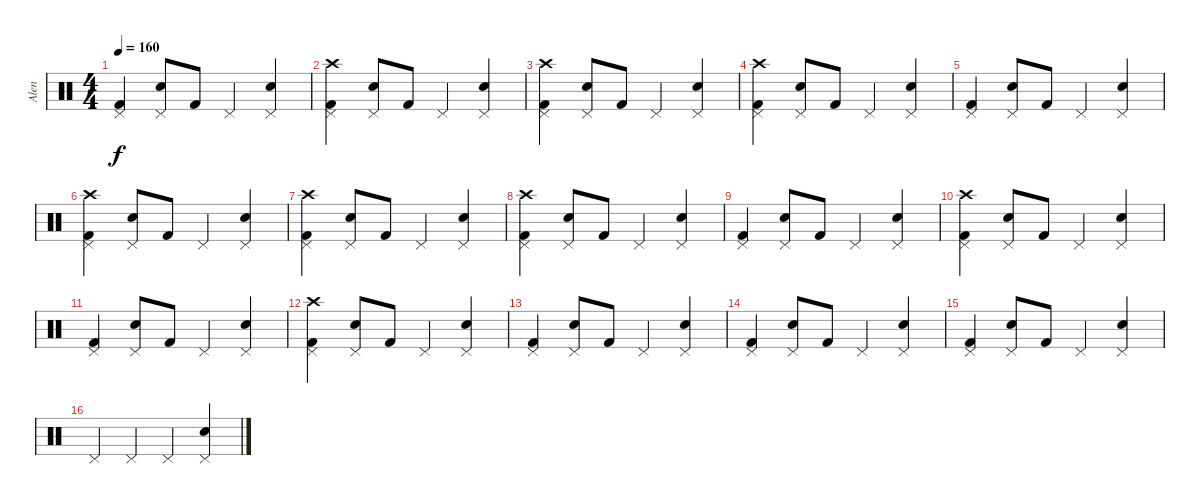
\track ("Alen" "Alen") {instrument percussion}
\staff {score}
\articulation defaults
\ts (4 4)
\tempo 160
\clef neutral
\ks c
("Pedal Hi-Hat (hit)" "Kick (hit) 2").4{dy f} ("Pedal Hi-Hat (hit)" "Snare (hit) 2").8 "Kick (hit) 2".8 "Pedal Hi-Hat (hit)".4 ("Pedal Hi-Hat (hit)" "Snare (hit) 2").4 |
("Crash high (hit)" "Pedal Hi-Hat (hit)" "Kick (hit) 2").4 ("Pedal Hi-Hat (hit)" "Snare (hit) 2").8 "Kick (hit) 2".8 "Pedal Hi-Hat (hit)".4 ("Pedal Hi-Hat (hit)" "Snare (hit) 2").4 |
("Crash high (hit)" "Pedal Hi-Hat (hit)" "Kick (hit) 2").4 ("Pedal Hi-Hat (hit)" "Snare (hit) 2").8 "Kick (hit) 2".8 "Pedal Hi-Hat (hit)".4 ("Pedal Hi-Hat (hit)" "Snare (hit) 2").4 |
("Crash high (hit)" "Pedal Hi-Hat (hit)" "Kick (hit) 2").4 ("Pedal Hi-Hat (hit)" "Snare (hit) 2").8 "Kick (hit) 2".8 "Pedal Hi-Hat (hit)".4 ("Pedal Hi-Hat (hit)" "Snare (hit) 2").4 |
("Pedal Hi-Hat (hit)" "Kick (hit) 2").4 ("Pedal Hi-Hat (hit)" "Snare (hit) 2").8 "Kick (hit) 2".8 "Pedal Hi-Hat (hit)".4 ("Pedal Hi-Hat (hit)" "Snare (hit) 2").4 |
("Crash high (hit)" "Pedal Hi-Hat (hit)" "Kick (hit) 2").4 ("Pedal Hi-Hat (hit)" "Snare (hit) 2").8 "Kick (hit) 2".8 "Pedal Hi-Hat (hit)".4 ("Pedal Hi-Hat (hit)" "Snare (hit) 2").4 |
("Crash high (hit)" "Pedal Hi-Hat (hit)" "Kick (hit) 2").4 ("Pedal Hi-Hat (hit)" "Snare (hit) 2").8 "Kick (hit) 2".8 "Pedal Hi-Hat (hit)".4 ("Pedal Hi-Hat (hit)" "Snare (hit) 2").4 |
("Crash high (hit)" "Pedal Hi-Hat (hit)" "Kick (hit) 2").4 ("Pedal Hi-Hat (hit)" "Snare (hit) 2").8 "Kick (hit) 2".8 "Pedal Hi-Hat (hit)".4 ("Pedal Hi-Hat (hit)" "Snare (hit) 2").4 |
("Pedal Hi-Hat (hit)" "Kick (hit) 2").4 ("Pedal Hi-Hat (hit)" "Snare (hit) 2").8 "Kick (hit) 2".8 "Pedal Hi-Hat (hit)".4 ("Pedal Hi-Hat (hit)" "Snare (hit) 2").4 |
("Crash high (hit)" "Pedal Hi-Hat (hit)" "Kick (hit) 2").4 ("Pedal Hi-Hat (hit)" "Snare (hit) 2").8 "Kick (hit) 2".8 "Pedal Hi-Hat (hit)".4 ("Pedal Hi-Hat (hit)" "Snare (hit) 2").4 |
("Pedal Hi-Hat (hit)" "Kick (hit) 2").4 ("Pedal Hi-Hat (hit)" "Snare (hit) 2").8 "Kick (hit) 2".8 "Pedal Hi-Hat (hit)".4 ("Pedal Hi-Hat (hit)" "Snare (hit) 2").4 |
("Crash high (hit)" "Pedal Hi-Hat (hit)" "Kick (hit) 2").4 ("Pedal Hi-Hat (hit)" "Snare (hit) 2").8 "Kick (hit) 2".8 "Pedal Hi-Hat (hit)".4 ("Pedal Hi-Hat (hit)" "Snare (hit) 2").4 |
("Pedal Hi-Hat (hit)" "Kick (hit) 2").4 ("Pedal Hi-Hat (hit)" "Snare (hit) 2").8 "Kick (hit) 2".8 "Pedal Hi-Hat (hit)".4 ("Pedal Hi-Hat (hit)" "Snare (hit) 2").4 |
("Pedal Hi-Hat (hit)" "Kick (hit) 2").4 ("Pedal Hi-Hat (hit)" "Snare (hit) 2").8 "Kick (hit) 2".8 "Pedal Hi-Hat (hit)".4 ("Pedal Hi-Hat (hit)" "Snare (hit) 2").4 |
("Pedal Hi-Hat (hit)" "Kick (hit) 2").4 ("Pedal Hi-Hat (hit)" "Snare (hit) 2").8 "Kick (hit) 2".8 "Pedal Hi-Hat (hit)".4 ("Pedal Hi-Hat (hit)" "Snare (hit) 2").4 |
"Pedal Hi-Hat (hit)".4 "Pedal Hi-Hat (hit)".4 "Pedal Hi-Hat (hit)".4 ("Pedal Hi-Hat (hit)" "Snare (hit) 2").4
